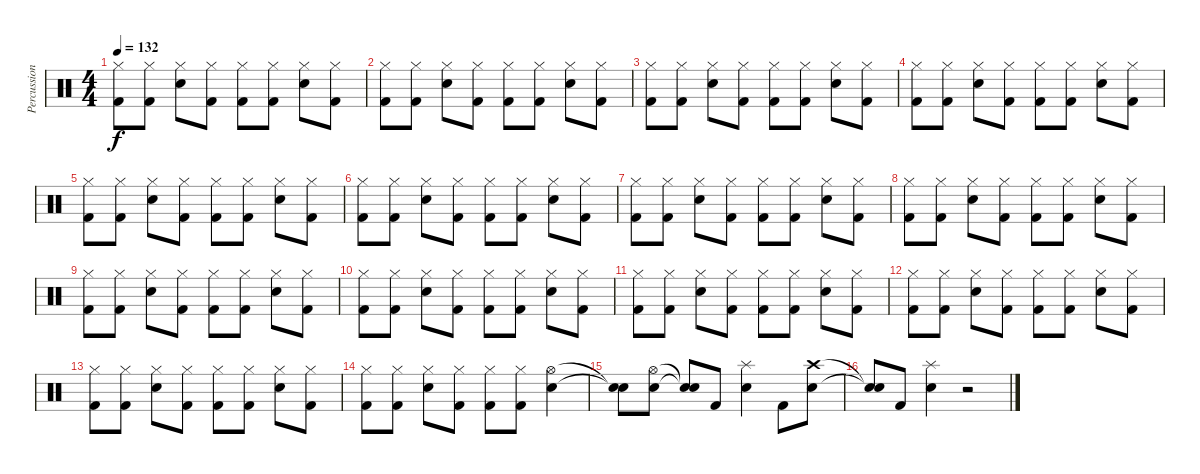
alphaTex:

\track ("Percussion" "Percussion") {instrument percussion}
\staff {score}
\articulation defaults
\ts (4 4)
\tempo 132
\clef neutral
\ks c
("Hi-Hat (closed)" "Kick (hit) 2").8{dy f} ("Hi-Hat (closed)" "Kick (hit) 2").8 ("Hi-Hat (closed)" "Metronome (bell)").8 ("Hi-Hat (closed)" "Kick (hit) 2").8 ("Hi-Hat (closed)" "Kick (hit) 2").8 ("Hi-Hat (closed)" "Kick (hit) 2").8 ("Hi-Hat (closed)" "Metronome (bell)").8 ("Hi-Hat (closed)" "Kick (hit) 2").8 |
("Hi-Hat (closed)" "Kick (hit) 2").8 ("Hi-Hat (closed)" "Kick (hit) 2").8 ("Hi-Hat (closed)" "Metronome (bell)").8 ("Hi-Hat (closed)" "Kick (hit) 2").8 ("Hi-Hat (closed)" "Kick (hit) 2").8 ("Hi-Hat (closed)" "Kick (hit) 2").8 ("Hi-Hat (closed)" "Metronome (bell)").8 ("Hi-Hat (closed)" "Kick (hit) 2").8 |
("Hi-Hat (closed)" "Kick (hit) 2").8 ("Hi-Hat (closed)" "Kick (hit) 2").8 ("Hi-Hat (closed)" "Metronome (bell)").8 ("Hi-Hat (closed)" "Kick (hit) 2").8 ("Hi-Hat (closed)" "Kick (hit) 2").8 ("Hi-Hat (closed)" "Kick (hit) 2").8 ("Hi-Hat (closed)" "Metronome (bell)").8 ("Hi-Hat (closed)" "Kick (hit) 2").8 |
("Hi-Hat (closed)" "Kick (hit) 2").8 ("Hi-Hat (closed)" "Kick (hit) 2").8 ("Hi-Hat (closed)" "Metronome (bell)").8 ("Hi-Hat (closed)" "Kick (hit) 2").8 ("Hi-Hat (closed)" "Kick (hit) 2").8 ("Hi-Hat (closed)" "Kick (hit) 2").8 ("Hi-Hat (closed)" "Metronome (bell)").8 ("Hi-Hat (closed)" "Kick (hit) 2").8 |
("Hi-Hat (closed)" "Kick (hit) 2").8 ("Hi-Hat (closed)" "Kick (hit) 2").8 ("Hi-Hat (closed)" "Metronome (bell)").8 ("Hi-Hat (closed)" "Kick (hit) 2").8 ("Hi-Hat (closed)" "Kick (hit) 2").8 ("Hi-Hat (closed)" "Kick (hit) 2").8 ("Hi-Hat (closed)" "Metronome (bell)").8 ("Hi-Hat (closed)" "Kick (hit) 2").8 |
("Hi-Hat (closed)" "Kick (hit) 2").8 ("Hi-Hat (closed)" "Kick (hit) 2").8 ("Hi-Hat (closed)" "Metronome (bell)").8 ("Hi-Hat (closed)" "Kick (hit) 2").8 ("Hi-Hat (closed)" "Kick (hit) 2").8 ("Hi-Hat (closed)" "Kick (hit) 2").8 ("Hi-Hat (closed)" "Metronome (bell)").8 ("Hi-Hat (closed)" "Kick (hit) 2").8 |
("Hi-Hat (closed)" "Kick (hit) 2").8 ("Hi-Hat (closed)" "Kick (hit) 2").8 ("Hi-Hat (closed)" "Metronome (bell)").8 ("Hi-Hat (closed)" "Kick (hit) 2").8 ("Hi-Hat (closed)" "Kick (hit) 2").8 ("Hi-Hat (closed)" "Kick (hit) 2").8 ("Hi-Hat (closed)" "Metronome (bell)").8 ("Hi-Hat (closed)" "Kick (hit) 2").8 |
("Hi-Hat (closed)" "Kick (hit) 2").8 ("Hi-Hat (closed)" "Kick (hit) 2").8 ("Hi-Hat (closed)" "Metronome (bell)").8 ("Hi-Hat (closed)" "Kick (hit) 2").8 ("Hi-Hat (closed)" "Kick (hit) 2").8 ("Hi-Hat (closed)" "Kick (hit) 2").8 ("Hi-Hat (closed)" "Metronome (bell)").8 ("Hi-Hat (closed)" "Kick (hit) 2").8 |
("Hi-Hat (closed)" "Kick (hit) 2").8 ("Hi-Hat (closed)" "Kick (hit) 2").8 ("Hi-Hat (closed)" "Metronome (bell)").8 ("Hi-Hat (closed)" "Kick (hit) 2").8 ("Hi-Hat (closed)" "Kick (hit) 2").8 ("Hi-Hat (closed)" "Kick (hit) 2").8 ("Hi-Hat (closed)" "Metronome (bell)").8 ("Hi-Hat (closed)" "Kick (hit) 2").8 |
("Hi-Hat (closed)" "Kick (hit) 2").8 ("Hi-Hat (closed)" "Kick (hit) 2").8 ("Hi-Hat (closed)" "Metronome (bell)").8 ("Hi-Hat (closed)" "Kick (hit) 2").8 ("Hi-Hat (closed)" "Kick (hit) 2").8 ("Hi-Hat (closed)" "Kick (hit) 2").8 ("Hi-Hat (closed)" "Metronome (bell)").8 ("Hi-Hat (closed)" "Kick (hit) 2").8 |
("Hi-Hat (closed)" "Kick (hit) 2").8 ("Hi-Hat (closed)" "Kick (hit) 2").8 ("Hi-Hat (closed)" "Metronome (bell)").8 ("Hi-Hat (closed)" "Kick (hit) 2").8 ("Hi-Hat (closed)" "Kick (hit) 2").8 ("Hi-Hat (closed)" "Kick (hit) 2").8 ("Hi-Hat (closed)" "Metronome (bell)").8 ("Hi-Hat (closed)" "Kick (hit) 2").8 |
("Hi-Hat (closed)" "Kick (hit) 2").8 ("Hi-Hat (closed)" "Kick (hit) 2").8 ("Hi-Hat (closed)" "Metronome (bell)").8 ("Hi-Hat (closed)" "Kick (hit) 2").8 ("Hi-Hat (closed)" "Kick (hit) 2").8 ("Hi-Hat (closed)" "Kick (hit) 2").8 ("Hi-Hat (closed)" "Metronome (bell)").8 ("Hi-Hat (closed)" "Kick (hit) 2").8 |
("Hi-Hat (closed)" "Kick (hit) 2").8 ("Hi-Hat (closed)" "Kick (hit) 2").8 ("Hi-Hat (closed)" "Metronome (bell)").8 ("Hi-Hat (closed)" "Kick (hit) 2").8 ("Hi-Hat (closed)" "Kick (hit) 2").8 ("Hi-Hat (closed)" "Kick (hit) 2").8 ("Hi-Hat (closed)" "Metronome (bell)").8 ("Hi-Hat (closed)" "Kick (hit) 2").8 |
("Hi-Hat (closed)" "Kick (hit) 2").8 ("Hi-Hat (closed)" "Kick (hit) 2").8 ("Hi-Hat (closed)" "Metronome (bell)").8 ("Hi-Hat (closed)" "Kick (hit) 2").8 ("Hi-Hat (closed)" "Kick (hit) 2").8 ("Hi-Hat (closed)" "Kick (hit) 2").8 ("Hi-Hat (open)" "Metronome (bell)").4 |
("Snare (hit)"{t} "Snare (hit)"{t}).8 ("Hi-Hat (open)" "Metronome (bell)").8 ("Snare (hit)"{t} "Snare (hit)"{t}).8 "Kick (hit) 2".8 ("Splash (hit)" "Metronome (bell)").4 "Kick (hit) 2".8 ("Crash high (hit)" "Metronome (bell)").8 |
("Snare (hit)"{t} "Snare (hit)"{t}).8 "Kick (hit) 2".8 ("Splash (hit)" "Metronome (bell)").4 r.2
